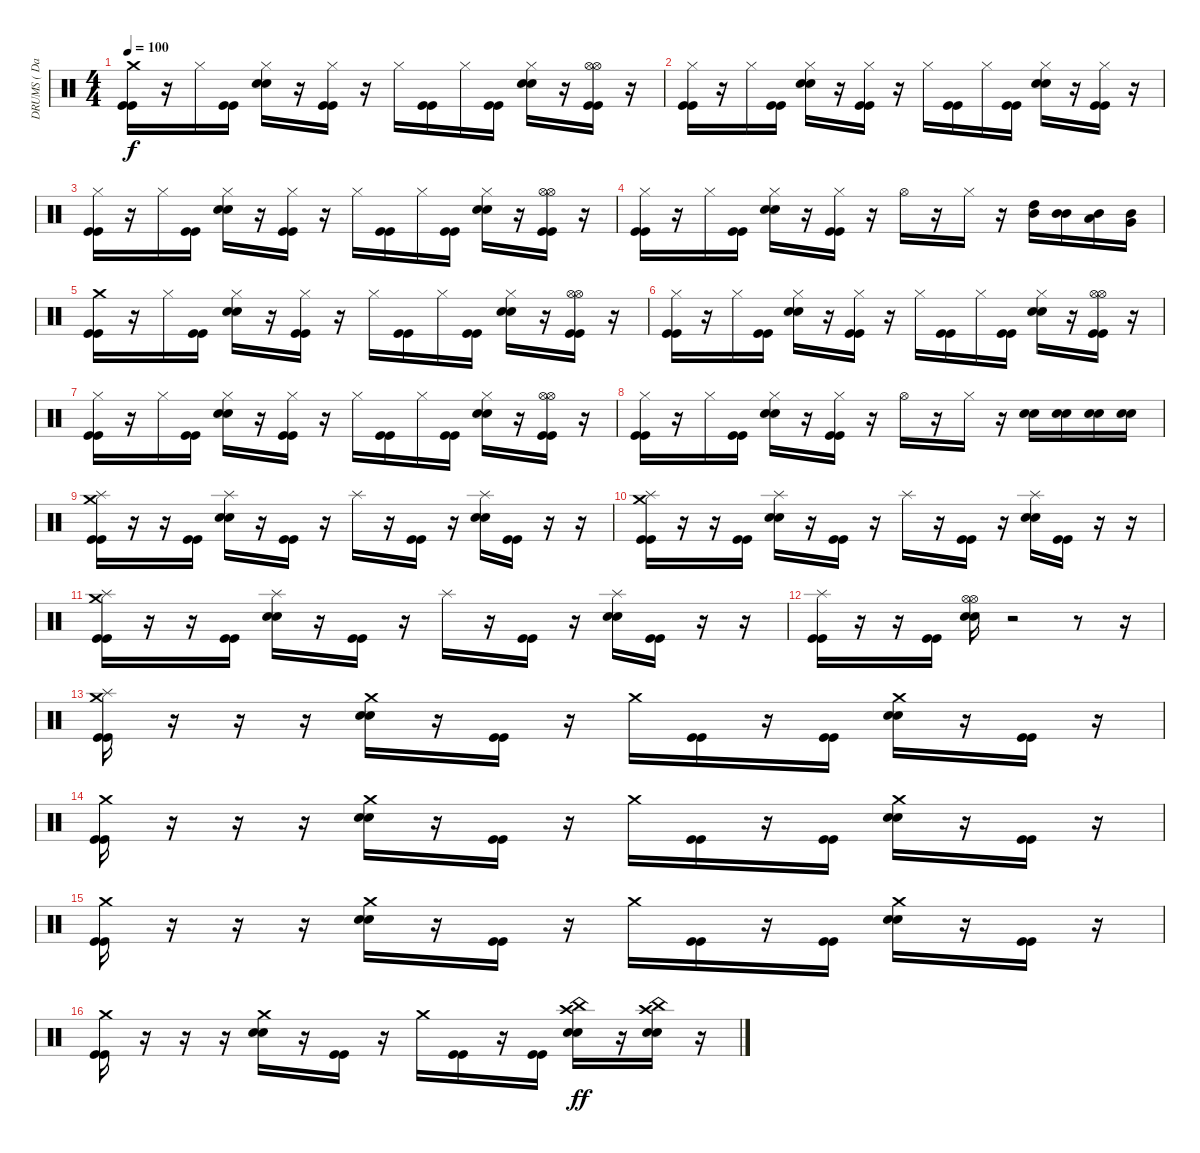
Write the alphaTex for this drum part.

\track ("DRUMS ( David ) - Wally Balljacker" "DRUMS ( Da") {instrument percussion}
\staff {score}
\articulation defaults
\ts (4 4)
\tempo 100
\clef neutral
\ks c
("Crash medium (hit)" "Kick (hit)" "Kick (hit)").16{dy f} r.16 "Hi-Hat (closed)".16 ("Kick (hit)" "Kick (hit)").16 ("Hi-Hat (closed)" "Electric Snare (hit)" "Electric Snare (hit)").16 r.16 ("Hi-Hat (closed)" "Kick (hit)" "Kick (hit)").16 r.16 "Hi-Hat (closed)".16 ("Kick (hit)" "Kick (hit)").16 "Hi-Hat (closed)".16 ("Kick (hit)" "Kick (hit)").16 ("Hi-Hat (closed)" "Electric Snare (hit)" "Electric Snare (hit)").16 r.16 ("Hi-Hat (open)" "Hi-Hat (open)" "Kick (hit)" "Kick (hit)").16 r.16 |
("Hi-Hat (closed)" "Kick (hit)" "Kick (hit)").16 r.16 "Hi-Hat (closed)".16 ("Kick (hit)" "Kick (hit)").16 ("Hi-Hat (closed)" "Electric Snare (hit)" "Electric Snare (hit)").16 r.16 ("Hi-Hat (closed)" "Kick (hit)" "Kick (hit)").16 r.16 "Hi-Hat (closed)".16 ("Kick (hit)" "Kick (hit)").16 "Hi-Hat (closed)".16 ("Kick (hit)" "Kick (hit)").16 ("Hi-Hat (closed)" "Electric Snare (hit)" "Electric Snare (hit)").16 r.16 ("Hi-Hat (closed)" "Kick (hit)" "Kick (hit)").16 r.16 |
("Hi-Hat (closed)" "Kick (hit)" "Kick (hit)").16 r.16 "Hi-Hat (closed)".16 ("Kick (hit)" "Kick (hit)").16 ("Hi-Hat (closed)" "Electric Snare (hit)" "Electric Snare (hit)").16 r.16 ("Hi-Hat (closed)" "Kick (hit)" "Kick (hit)").16 r.16 "Hi-Hat (closed)".16 ("Kick (hit)" "Kick (hit)").16 "Hi-Hat (closed)".16 ("Kick (hit)" "Kick (hit)").16 ("Hi-Hat (closed)" "Electric Snare (hit)" "Electric Snare (hit)").16 r.16 ("Hi-Hat (open)" "Hi-Hat (open)" "Kick (hit)" "Kick (hit)").16 r.16 |
("Hi-Hat (closed)" "Kick (hit)" "Kick (hit)").16 r.16 "Hi-Hat (closed)".16 ("Kick (hit)" "Kick (hit)").16 ("Hi-Hat (closed)" "Electric Snare (hit)" "Electric Snare (hit)").16 r.16 ("Hi-Hat (closed)" "Kick (hit)" "Kick (hit)").16 r.16 "Hi-Hat (open)".16 r.16 "Hi-Hat (closed)".16 r.16 ("High Tom (hit)" "Mid Tom (hit)").16 ("Mid Tom (hit)" "Mid Tom (hit)").16 ("Low Tom (hit)" "Mid Tom (hit)").16 ("Very Low Tom (hit)" "Mid Tom (hit)").16 |
("Crash medium (hit)" "Kick (hit)" "Kick (hit)").16 r.16 "Hi-Hat (closed)".16 ("Kick (hit)" "Kick (hit)").16 ("Hi-Hat (closed)" "Electric Snare (hit)" "Electric Snare (hit)").16 r.16 ("Hi-Hat (closed)" "Kick (hit)" "Kick (hit)").16 r.16 "Hi-Hat (closed)".16 ("Kick (hit)" "Kick (hit)").16 "Hi-Hat (closed)".16 ("Kick (hit)" "Kick (hit)").16 ("Hi-Hat (closed)" "Electric Snare (hit)" "Electric Snare (hit)").16 r.16 ("Hi-Hat (open)" "Hi-Hat (open)" "Kick (hit)" "Kick (hit)").16 r.16 |
("Hi-Hat (closed)" "Kick (hit)" "Kick (hit)").16 r.16 "Hi-Hat (closed)".16 ("Kick (hit)" "Kick (hit)").16 ("Hi-Hat (closed)" "Electric Snare (hit)" "Electric Snare (hit)").16 r.16 ("Hi-Hat (closed)" "Kick (hit)" "Kick (hit)").16 r.16 "Hi-Hat (closed)".16 ("Kick (hit)" "Kick (hit)").16 "Hi-Hat (closed)".16 ("Kick (hit)" "Kick (hit)").16 ("Hi-Hat (closed)" "Electric Snare (hit)" "Electric Snare (hit)").16 r.16 ("Hi-Hat (open)" "Hi-Hat (open)" "Kick (hit)" "Kick (hit)").16 r.16 |
("Hi-Hat (closed)" "Kick (hit)" "Kick (hit)").16 r.16 "Hi-Hat (closed)".16 ("Kick (hit)" "Kick (hit)").16 ("Hi-Hat (closed)" "Electric Snare (hit)" "Electric Snare (hit)").16 r.16 ("Hi-Hat (closed)" "Kick (hit)" "Kick (hit)").16 r.16 "Hi-Hat (closed)".16 ("Kick (hit)" "Kick (hit)").16 "Hi-Hat (closed)".16 ("Kick (hit)" "Kick (hit)").16 ("Hi-Hat (closed)" "Electric Snare (hit)" "Electric Snare (hit)").16 r.16 ("Hi-Hat (open)" "Hi-Hat (open)" "Kick (hit)" "Kick (hit)").16 r.16 |
("Hi-Hat (closed)" "Kick (hit)" "Kick (hit)").16 r.16 "Hi-Hat (closed)".16 ("Kick (hit)" "Kick (hit)").16 ("Hi-Hat (closed)" "Electric Snare (hit)" "Electric Snare (hit)").16 r.16 ("Hi-Hat (closed)" "Kick (hit)" "Kick (hit)").16 r.16 "Hi-Hat (open)".16 r.16 "Hi-Hat (closed)".16 r.16 ("Electric Snare (hit)" "Electric Snare (hit)").16 ("Electric Snare (hit)" "Electric Snare (hit)").16 ("Electric Snare (hit)" "Electric Snare (hit)").16 ("Electric Snare (hit)" "Electric Snare (hit)").16 |
("Splash (hit)" "Crash medium (hit)" "Kick (hit)" "Kick (hit)").16 r.16 r.16 ("Kick (hit)" "Kick (hit)").16 ("Splash (hit)" "Electric Snare (hit)" "Electric Snare (hit)").16 r.16 ("Kick (hit)" "Kick (hit)").16 r.16 "Splash (hit)".16 r.16 ("Kick (hit)" "Kick (hit)").16 r.16 ("Splash (hit)" "Electric Snare (hit)" "Electric Snare (hit)").16 ("Kick (hit)" "Kick (hit)").16 r.16 r.16 |
("Splash (hit)" "Crash medium (hit)" "Kick (hit)" "Kick (hit)").16 r.16 r.16 ("Kick (hit)" "Kick (hit)").16 ("Splash (hit)" "Electric Snare (hit)" "Electric Snare (hit)").16 r.16 ("Kick (hit)" "Kick (hit)").16 r.16 "Splash (hit)".16 r.16 ("Kick (hit)" "Kick (hit)").16 r.16 ("Splash (hit)" "Electric Snare (hit)" "Electric Snare (hit)").16 ("Kick (hit)" "Kick (hit)").16 r.16 r.16 |
("Splash (hit)" "Crash medium (hit)" "Kick (hit)" "Kick (hit)").16 r.16 r.16 ("Kick (hit)" "Kick (hit)").16 ("Splash (hit)" "Electric Snare (hit)" "Electric Snare (hit)").16 r.16 ("Kick (hit)" "Kick (hit)").16 r.16 "Splash (hit)".16 r.16 ("Kick (hit)" "Kick (hit)").16 r.16 ("Splash (hit)" "Electric Snare (hit)" "Electric Snare (hit)").16 ("Kick (hit)" "Kick (hit)").16 r.16 r.16 |
("Splash (hit)" "Kick (hit)" "Kick (hit)").16 r.16 r.16 ("Kick (hit)" "Kick (hit)").16 ("Hi-Hat (open)" "Hi-Hat (open)" "Electric Snare (hit)" "Electric Snare (hit)").16 r.2 r.8 r.16 |
("Crash medium (hit)" "Splash (hit)" "Kick (hit)" "Kick (hit)").16 r.16 r.16 r.16 ("Crash medium (hit)" "Electric Snare (hit)" "Electric Snare (hit)").16 r.16 ("Kick (hit)" "Kick (hit)").16 r.16 "Crash medium (hit)".16 ("Kick (hit)" "Kick (hit)").16 r.16 ("Kick (hit)" "Kick (hit)").16 ("Crash medium (hit)" "Electric Snare (hit)" "Electric Snare (hit)").16 r.16 ("Kick (hit)" "Kick (hit)").16 r.16 |
("Crash medium (hit)" "Kick (hit)" "Kick (hit)").16 r.16 r.16 r.16 ("Crash medium (hit)" "Electric Snare (hit)" "Electric Snare (hit)").16 r.16 ("Kick (hit)" "Kick (hit)").16 r.16 "Crash medium (hit)".16 ("Kick (hit)" "Kick (hit)").16 r.16 ("Kick (hit)" "Kick (hit)").16 ("Crash medium (hit)" "Electric Snare (hit)" "Electric Snare (hit)").16 r.16 ("Kick (hit)" "Kick (hit)").16 r.16 |
("Crash medium (hit)" "Kick (hit)" "Kick (hit)").16 r.16 r.16 r.16 ("Crash medium (hit)" "Electric Snare (hit)" "Electric Snare (hit)").16 r.16 ("Kick (hit)" "Kick (hit)").16 r.16 "Crash medium (hit)".16 ("Kick (hit)" "Kick (hit)").16 r.16 ("Kick (hit)" "Kick (hit)").16 ("Crash medium (hit)" "Electric Snare (hit)" "Electric Snare (hit)").16 r.16 ("Kick (hit)" "Kick (hit)").16 r.16 |
("Crash medium (hit)" "Kick (hit)" "Kick (hit)").16 r.16 r.16 r.16 ("Crash medium (hit)" "Electric Snare (hit)" "Electric Snare (hit)").16 r.16 ("Kick (hit)" "Kick (hit)").16 r.16 "Crash medium (hit)".16 ("Kick (hit)" "Kick (hit)").16 r.16 ("Kick (hit)" "Kick (hit)").16 ("Crash high (hit)" "China (hit)" "Electric Snare (hit)" "Electric Snare (hit)").16{dy ff} r.16 ("Crash high (hit)" "China (hit)" "Electric Snare (hit)" "Electric Snare (hit)").16 r.16
